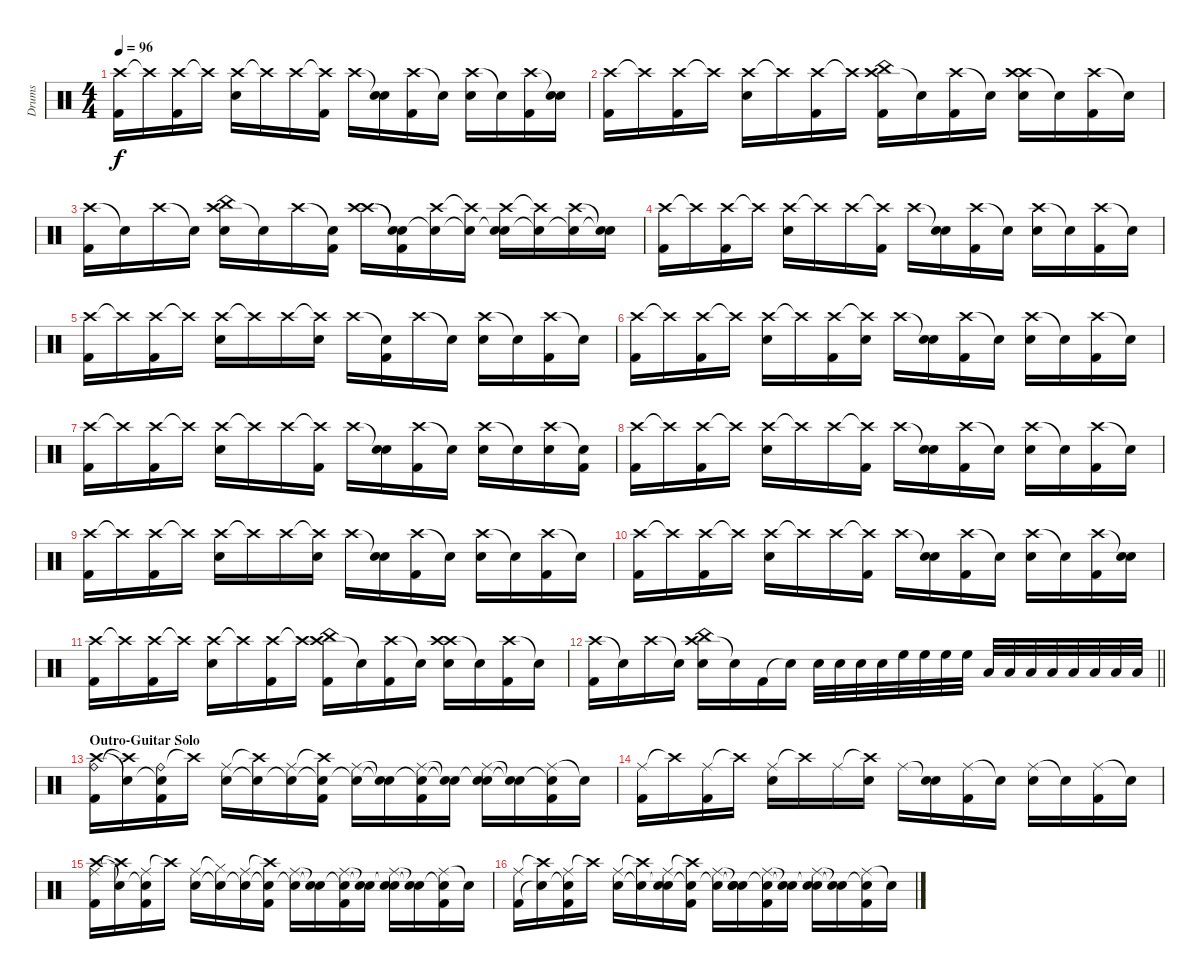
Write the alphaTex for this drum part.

\track ("Drums" "Drums") {instrument percussion}
\staff {score}
\articulation defaults
\ts (4 4)
\tempo 96
\clef neutral
\ks aminor
("Crash high (hit)" "Kick (hit) 2").16{dy f} "Crash high (hit)"{t}.16 ("Crash high (hit)" "Kick (hit) 2").16 "Crash high (hit)"{t}.16 ("Crash high (hit)" "Snare (hit) 2").16 "Crash high (hit)"{t}.16 "Crash high (hit)".16 ("Crash high (hit)"{t} "Kick (hit) 2").16 "Crash high (hit)".16 ("Snare (hit)"{t} "Snare (hit) 2").16 ("Crash high (hit)" "Kick (hit) 2").16 "Snare (hit)"{t}.16 ("Crash high (hit)" "Snare (hit) 2").16 "Snare (hit)"{t}.16 ("Crash high (hit)" "Kick (hit) 2").16 ("Snare (hit)"{t} "Snare (hit) 2").16 |
("Crash high (hit)" "Kick (hit) 2").16 "Crash high (hit)"{t}.16 ("Crash high (hit)" "Kick (hit) 2").16 "Crash high (hit)"{t}.16 ("Crash high (hit)" "Snare (hit) 2").16 "Crash high (hit)"{t}.16 ("Crash high (hit)" "Kick (hit) 2").16 "Crash high (hit)"{t}.16 ("Crash high (hit)" "China (hit)" "Kick (hit) 2").16 "Snare (hit)"{t}.16 ("Crash high (hit)" "Kick (hit) 2").16 "Snare (hit)"{t}.16 ("Crash high (hit)" "Crash high (hit)" "Snare (hit) 2").16 "Snare (hit)"{t}.16 ("Crash high (hit)" "Kick (hit) 2").16 "Snare (hit)"{t}.16 |
("Crash high (hit)" "Kick (hit) 2").16 "Snare (hit)"{t}.16 "Crash high (hit)".16 "Snare (hit)"{t}.16 ("Crash high (hit)" "China (hit)" "Snare (hit) 2").16 "Snare (hit)"{t}.16 "Crash high (hit)".16 ("Snare (hit)"{t} "Kick (hit) 2").16 ("Crash high (hit)" "Crash high (hit)").16 ("Snare (hit)"{t} "Snare (hit)"{t} "Kick (hit) 2").16 ("Crash high (hit)" "Snare (hit)"{t}).16 ("Crash high (hit)"{t} "Snare (hit)"{t}).16 ("Crash high (hit)" "Snare (hit)"{t} "Snare (hit) 2").16 ("Crash high (hit)"{t} "Snare (hit)"{t}).16 ("Crash high (hit)" "Snare (hit)"{t}).16 ("Snare (hit)"{t} "Snare (hit)"{t}).16 |
("Crash high (hit)" "Kick (hit) 2").16 "Crash high (hit)"{t}.16 ("Crash high (hit)" "Kick (hit) 2").16 "Crash high (hit)"{t}.16 ("Crash high (hit)" "Snare (hit) 2").16 "Crash high (hit)"{t}.16 "Crash high (hit)".16 ("Crash high (hit)"{t} "Kick (hit) 2").16 "Crash high (hit)".16 ("Snare (hit)"{t} "Snare (hit) 2").16 ("Crash high (hit)" "Kick (hit) 2").16 "Snare (hit)"{t}.16 ("Crash high (hit)" "Snare (hit) 2").16 "Snare (hit)"{t}.16 ("Crash high (hit)" "Kick (hit) 2").16 "Snare (hit)"{t}.16 |
("Crash high (hit)" "Kick (hit) 2").16 "Crash high (hit)"{t}.16 ("Crash high (hit)" "Kick (hit) 2").16 "Crash high (hit)"{t}.16 ("Crash high (hit)" "Snare (hit) 2").16 "Crash high (hit)"{t}.16 "Crash high (hit)".16 ("Crash high (hit)"{t} "Snare (hit) 2").16 "Crash high (hit)".16 ("Snare (hit)"{t} "Kick (hit) 2").16 "Crash high (hit)".16 "Snare (hit)"{t}.16 ("Crash high (hit)" "Snare (hit) 2").16 "Snare (hit)"{t}.16 ("Crash high (hit)" "Kick (hit) 2").16 "Snare (hit)"{t}.16 |
("Crash high (hit)" "Kick (hit) 2").16 "Crash high (hit)"{t}.16 ("Crash high (hit)" "Kick (hit) 2").16 "Crash high (hit)"{t}.16 ("Crash high (hit)" "Snare (hit) 2").16 "Crash high (hit)"{t}.16 ("Crash high (hit)" "Kick (hit) 2").16 ("Crash high (hit)"{t} "Snare (hit) 2").16 "Crash high (hit)".16 ("Snare (hit)"{t} "Snare (hit) 2").16 ("Crash high (hit)" "Kick (hit) 2").16 "Snare (hit)"{t}.16 ("Crash high (hit)" "Snare (hit) 2").16 "Snare (hit)"{t}.16 ("Crash high (hit)" "Kick (hit) 2").16 "Snare (hit)"{t}.16 |
("Crash high (hit)" "Kick (hit) 2").16 "Crash high (hit)"{t}.16 ("Crash high (hit)" "Kick (hit) 2").16 "Crash high (hit)"{t}.16 ("Crash high (hit)" "Snare (hit) 2").16 "Crash high (hit)"{t}.16 "Crash high (hit)".16 ("Crash high (hit)"{t} "Kick (hit) 2").16 "Crash high (hit)".16 ("Snare (hit)"{t} "Snare (hit) 2").16 ("Crash high (hit)" "Kick (hit) 2").16 "Snare (hit)"{t}.16 ("Crash high (hit)" "Snare (hit) 2").16 "Snare (hit)"{t}.16 ("Crash high (hit)" "Snare (hit) 2").16 ("Snare (hit)"{t} "Kick (hit) 2").16 |
("Crash high (hit)" "Kick (hit) 2").16 "Crash high (hit)"{t}.16 ("Crash high (hit)" "Kick (hit) 2").16 "Crash high (hit)"{t}.16 ("Crash high (hit)" "Snare (hit) 2").16 "Crash high (hit)"{t}.16 "Crash high (hit)".16 ("Crash high (hit)"{t} "Kick (hit) 2").16 "Crash high (hit)".16 ("Snare (hit)"{t} "Snare (hit) 2").16 ("Crash high (hit)" "Kick (hit) 2").16 "Snare (hit)"{t}.16 ("Crash high (hit)" "Snare (hit) 2").16 "Snare (hit)"{t}.16 ("Crash high (hit)" "Kick (hit) 2").16 "Snare (hit)"{t}.16 |
("Crash high (hit)" "Kick (hit) 2").16 "Crash high (hit)"{t}.16 ("Crash high (hit)" "Kick (hit) 2").16 "Crash high (hit)"{t}.16 ("Crash high (hit)" "Snare (hit) 2").16 "Crash high (hit)"{t}.16 "Crash high (hit)".16 ("Crash high (hit)"{t} "Snare (hit) 2").16 "Crash high (hit)".16 ("Snare (hit)"{t} "Snare (hit) 2").16 ("Crash high (hit)" "Kick (hit) 2").16 "Snare (hit)"{t}.16 ("Crash high (hit)" "Snare (hit) 2").16 "Snare (hit)"{t}.16 ("Crash high (hit)" "Kick (hit) 2").16 "Snare (hit)"{t}.16 |
("Crash high (hit)" "Kick (hit) 2").16 "Crash high (hit)"{t}.16 ("Crash high (hit)" "Kick (hit) 2").16 "Crash high (hit)"{t}.16 ("Crash high (hit)" "Snare (hit) 2").16 "Crash high (hit)"{t}.16 "Crash high (hit)".16 ("Crash high (hit)"{t} "Kick (hit) 2").16 "Crash high (hit)".16 ("Snare (hit)"{t} "Snare (hit) 2").16 ("Crash high (hit)" "Kick (hit) 2").16 "Snare (hit)"{t}.16 ("Crash high (hit)" "Snare (hit) 2").16 "Snare (hit)"{t}.16 ("Crash high (hit)" "Kick (hit) 2").16 ("Snare (hit)"{t} "Snare (hit) 2").16 |
("Crash high (hit)" "Kick (hit) 2").16 "Crash high (hit)"{t}.16 ("Crash high (hit)" "Kick (hit) 2").16 "Crash high (hit)"{t}.16 ("Crash high (hit)" "Snare (hit) 2").16 "Crash high (hit)"{t}.16 ("Crash high (hit)" "Kick (hit) 2").16 "Crash high (hit)"{t}.16 ("Crash high (hit)" "China (hit)" "Kick (hit) 2").16 "Snare (hit)"{t}.16 ("Crash high (hit)" "Kick (hit) 2").16 "Snare (hit)"{t}.16 ("Crash high (hit)" "Crash high (hit)" "Snare (hit) 2").16 "Snare (hit)"{t}.16 ("Crash high (hit)" "Kick (hit) 2").16 "Snare (hit)"{t}.16 |
\barLineRight lightlight
("Crash high (hit)" "Kick (hit) 2").16 "Snare (hit)"{t}.16 "Crash high (hit)".16 "Snare (hit)"{t}.16 ("Crash high (hit)" "China (hit)" "Snare (hit) 2").16 "Snare (hit)"{t}.16 "Kick (hit) 2".16 "Snare (hit)"{t}.16 "Snare (hit) 2".32 "Snare (hit) 2".32 "Snare (hit) 2".32 "Snare (hit) 2".32 "High Floor Tom (hit)".32 "High Floor Tom (hit)".32 "High Floor Tom (hit)".32 "High Floor Tom (hit)".32 "Low Tom (hit)".32 "Low Tom (hit)".32 "Low Tom (hit)".32 "Low Tom (hit)".32 "Low Floor Tom (hit)".32 "Low Floor Tom (hit)".32 "Low Floor Tom (hit)".32 "Low Floor Tom (hit)".32 |
\section ("" "Outro-Guitar Solo")
("Ride (bell)" "Crash high (hit)" "Kick (hit) 2").16 ("Crash high (hit)"{t} "Snare (hit)"{t}).16 ("Ride (bell)" "Snare (hit)"{t} "Kick (hit) 2").16 "Crash high (hit)"{t}.16 ("Ride (middle)" "Snare (hit) 2").16 ("Crash high (hit)"{t} "Snare (hit)"{t}).16 ("Ride (middle)" "Snare (hit)"{t}).16 ("Crash high (hit)"{t} "Snare (hit)"{t} "Kick (hit) 2").16 ("Ride (middle)" "Snare (hit)"{t}).16 ("Snare (hit)"{t} "Snare (hit)"{t}).16 ("Ride (middle)" "Snare (hit)"{t} "Kick (hit) 2").16 ("Snare (hit)"{t} "Snare (hit)"{t}).16 ("Ride (middle)" "Snare (hit)"{t} "Snare (hit) 2").16 ("Snare (hit)"{t} "Snare (hit)"{t}).16 ("Ride (middle)" "Snare (hit)"{t} "Kick (hit) 2").16 "Snare (hit)"{t}.16 |
("Ride (middle)" "Kick (hit) 2").16 "Crash high (hit)"{t}.16 ("Ride (middle)" "Kick (hit) 2").16 "Crash high (hit)"{t}.16 ("Ride (middle)" "Snare (hit) 2").16 "Crash high (hit)"{t}.16 "Ride (middle)".16 ("Crash high (hit)"{t} "Snare (hit) 2").16 "Ride (middle)".16 ("Snare (hit)"{t} "Snare (hit) 2").16 ("Ride (middle)" "Kick (hit) 2").16 "Snare (hit)"{t}.16 ("Ride (middle)" "Snare (hit) 2").16 "Snare (hit)"{t}.16 ("Ride (middle)" "Kick (hit) 2").16 "Snare (hit)"{t}.16 |
("Ride (middle)" "Crash high (hit)" "Kick (hit) 2").16 ("Crash high (hit)"{t} "Snare (hit)"{t}).16 ("Ride (middle)" "Snare (hit)"{t} "Kick (hit) 2").16 "Crash high (hit)"{t}.16 ("Ride (middle)" "Snare (hit) 2").16 ("Hi-Hat (closed)"{t} "Snare (hit)"{t}).16 ("Ride (middle)" "Snare (hit)"{t}).16 ("Crash high (hit)"{t} "Snare (hit)"{t} "Kick (hit) 2").16 ("Ride (middle)" "Snare (hit)"{t}).16 ("Snare (hit)"{t} "Snare (hit)"{t}).16 ("Ride (middle)" "Snare (hit)"{t} "Kick (hit) 2").16 ("Snare (hit)"{t} "Snare (hit)"{t}).16 ("Ride (middle)" "Snare (hit)"{t} "Snare (hit) 2").16 ("Snare (hit)"{t} "Snare (hit)"{t}).16 ("Ride (middle)" "Snare (hit)"{t} "Kick (hit) 2").16 "Snare (hit)"{t}.16 |
("Ride (middle)" "Kick (hit) 2").16 ("Crash high (hit)"{t} "Snare (hit)"{t}).16 ("Ride (middle)" "Snare (hit)"{t} "Kick (hit) 2").16 "Crash high (hit)"{t}.16 ("Ride (middle)" "Snare (hit) 2").16 ("Crash high (hit)"{t} "Snare (hit)"{t}).16 ("Ride (middle)" "Snare (hit)"{t} "Snare (hit) 2").16 ("Crash high (hit)"{t} "Snare (hit)"{t} "Kick (hit) 2").16 ("Ride (middle)" "Snare (hit)"{t}).16 ("Snare (hit)"{t} "Snare (hit)"{t} "Snare (hit) 2").16 ("Ride (middle)" "Snare (hit)"{t} "Kick (hit) 2").16 ("Snare (hit)"{t} "Snare (hit)"{t}).16 ("Ride (middle)" "Snare (hit)"{t} "Snare (hit) 2").16 ("Snare (hit)"{t} "Snare (hit)"{t}).16 ("Ride (middle)" "Snare (hit)"{t} "Kick (hit) 2").16 "Snare (hit)"{t}.16
